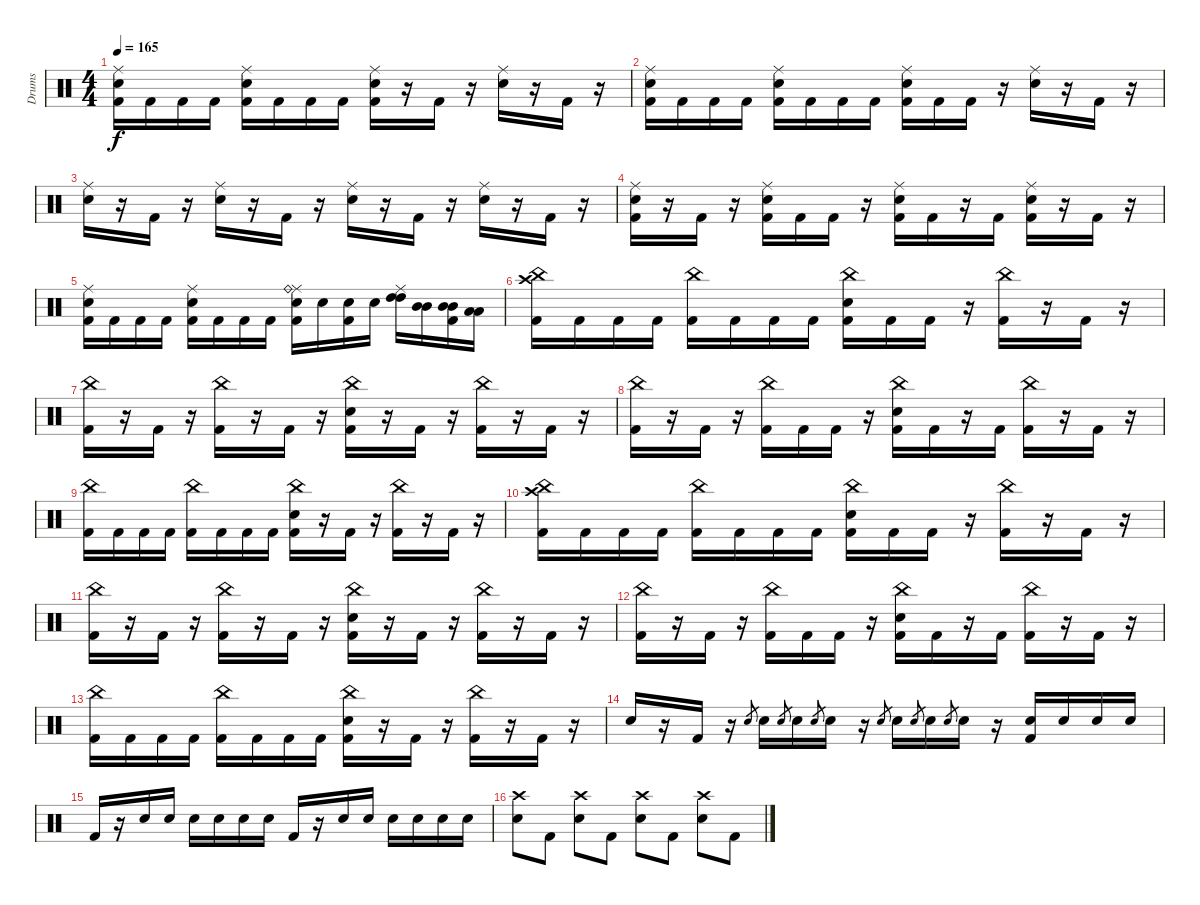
\track ("Drums" "Drums") {instrument percussion}
\staff {score}
\articulation defaults
\ts (4 4)
\tempo 165
\clef neutral
\ks c
("Ride (middle)" "Electric Snare (hit)" "Kick (hit) 2").16{dy f} "Kick (hit) 2".16 "Kick (hit) 2".16 "Kick (hit) 2".16 ("Ride (middle)" "Electric Snare (hit)" "Kick (hit) 2").16 "Kick (hit) 2".16 "Kick (hit) 2".16 "Kick (hit) 2".16 ("Ride (middle)" "Electric Snare (hit)" "Kick (hit) 2").16 r.16 "Kick (hit) 2".16 r.16 ("Ride (middle)" "Electric Snare (hit)").16 r.16 "Kick (hit) 2".16 r.16 |
("Ride (middle)" "Electric Snare (hit)" "Kick (hit) 2").16 "Kick (hit) 2".16 "Kick (hit) 2".16 "Kick (hit) 2".16 ("Ride (middle)" "Electric Snare (hit)" "Kick (hit) 2").16 "Kick (hit) 2".16 "Kick (hit) 2".16 "Kick (hit) 2".16 ("Ride (middle)" "Electric Snare (hit)" "Kick (hit) 2").16 "Kick (hit) 2".16 "Kick (hit) 2".16 r.16 ("Ride (middle)" "Electric Snare (hit)").16 r.16 "Kick (hit) 2".16 r.16 |
("Ride (middle)" "Electric Snare (hit)").16 r.16 "Kick (hit) 2".16 r.16 ("Ride (middle)" "Electric Snare (hit)").16 r.16 "Kick (hit) 2".16 r.16 ("Ride (middle)" "Electric Snare (hit)").16 r.16 "Kick (hit) 2".16 r.16 ("Ride (middle)" "Electric Snare (hit)").16 r.16 "Kick (hit) 2".16 r.16 |
("Ride (middle)" "Electric Snare (hit)" "Kick (hit) 2").16 r.16 "Kick (hit) 2".16 r.16 ("Ride (middle)" "Electric Snare (hit)" "Kick (hit) 2").16 "Kick (hit) 2".16 "Kick (hit) 2".16 r.16 ("Ride (middle)" "Electric Snare (hit)" "Kick (hit) 2").16 "Kick (hit) 2".16 r.16 "Kick (hit) 2".16 ("Ride (middle)" "Electric Snare (hit)" "Kick (hit) 2").16 r.16 "Kick (hit) 2".16 r.16 |
("Ride (middle)" "Electric Snare (hit)" "Kick (hit) 2").16 "Kick (hit) 2".16 "Kick (hit) 2".16 "Kick (hit) 2".16 ("Ride (middle)" "Electric Snare (hit)" "Kick (hit) 2").16 "Kick (hit) 2".16 "Kick (hit) 2".16 "Kick (hit) 2".16 ("Ride (middle)" "Ride (bell)" "Electric Snare (hit)" "Kick (hit) 2").16 "Electric Snare (hit)".16 ("Electric Snare (hit)" "Kick (hit) 2").16 "Electric Snare (hit)".16 ("Ride (middle)" "High Tom (hit)" "High Tom (hit)").16 ("Mid Tom (hit)" "Mid Tom (hit)").16 ("Mid Tom (hit)" "Mid Tom (hit)" "Kick (hit) 2").16 ("Low Tom (hit)" "Low Tom (hit)").16 |
("China (hit)" "Crash high (hit)" "Kick (hit) 2").16 "Kick (hit) 2".16 "Kick (hit) 2".16 "Kick (hit) 2".16 ("China (hit)" "Kick (hit) 2").16 "Kick (hit) 2".16 "Kick (hit) 2".16 "Kick (hit) 2".16 ("China (hit)" "Electric Snare (hit)" "Kick (hit) 2").16 "Kick (hit) 2".16 "Kick (hit) 2".16 r.16 ("China (hit)" "Kick (hit) 2").16 r.16 "Kick (hit) 2".16 r.16 |
("China (hit)" "Kick (hit) 2").16 r.16 "Kick (hit) 2".16 r.16 ("China (hit)" "Kick (hit) 2").16 r.16 "Kick (hit) 2".16 r.16 ("China (hit)" "Electric Snare (hit)" "Kick (hit) 2").16 r.16 "Kick (hit) 2".16 r.16 ("China (hit)" "Kick (hit) 2").16 r.16 "Kick (hit) 2".16 r.16 |
("China (hit)" "Kick (hit) 2").16 r.16 "Kick (hit) 2".16 r.16 ("China (hit)" "Kick (hit) 2").16 "Kick (hit) 2".16 "Kick (hit) 2".16 r.16 ("China (hit)" "Electric Snare (hit)" "Kick (hit) 2").16 "Kick (hit) 2".16 r.16 "Kick (hit) 2".16 ("China (hit)" "Kick (hit) 2").16 r.16 "Kick (hit) 2".16 r.16 |
("China (hit)" "Kick (hit) 2").16 "Kick (hit) 2".16 "Kick (hit) 2".16 "Kick (hit) 2".16 ("China (hit)" "Kick (hit) 2").16 "Kick (hit) 2".16 "Kick (hit) 2".16 "Kick (hit) 2".16 ("China (hit)" "Electric Snare (hit)" "Kick (hit) 2").16 r.16 "Kick (hit) 2".16 r.16 ("China (hit)" "Kick (hit) 2").16 r.16 "Kick (hit) 2".16 r.16 |
("China (hit)" "Crash high (hit)" "Kick (hit) 2").16 "Kick (hit) 2".16 "Kick (hit) 2".16 "Kick (hit) 2".16 ("China (hit)" "Kick (hit) 2").16 "Kick (hit) 2".16 "Kick (hit) 2".16 "Kick (hit) 2".16 ("China (hit)" "Electric Snare (hit)" "Kick (hit) 2").16 "Kick (hit) 2".16 "Kick (hit) 2".16 r.16 ("China (hit)" "Kick (hit) 2").16 r.16 "Kick (hit) 2".16 r.16 |
("China (hit)" "Kick (hit) 2").16 r.16 "Kick (hit) 2".16 r.16 ("China (hit)" "Kick (hit) 2").16 r.16 "Kick (hit) 2".16 r.16 ("China (hit)" "Electric Snare (hit)" "Kick (hit) 2").16 r.16 "Kick (hit) 2".16 r.16 ("China (hit)" "Kick (hit) 2").16 r.16 "Kick (hit) 2".16 r.16 |
("China (hit)" "Kick (hit) 2").16 r.16 "Kick (hit) 2".16 r.16 ("China (hit)" "Kick (hit) 2").16 "Kick (hit) 2".16 "Kick (hit) 2".16 r.16 ("China (hit)" "Electric Snare (hit)" "Kick (hit) 2").16 "Kick (hit) 2".16 r.16 "Kick (hit) 2".16 ("China (hit)" "Kick (hit) 2").16 r.16 "Kick (hit) 2".16 r.16 |
("China (hit)" "Kick (hit) 2").16 "Kick (hit) 2".16 "Kick (hit) 2".16 "Kick (hit) 2".16 ("China (hit)" "Kick (hit) 2").16 "Kick (hit) 2".16 "Kick (hit) 2".16 "Kick (hit) 2".16 ("China (hit)" "Electric Snare (hit)" "Kick (hit) 2").16 r.16 "Kick (hit) 2".16 r.16 ("China (hit)" "Kick (hit) 2").16 r.16 "Kick (hit) 2".16 r.16 |
"Electric Snare (hit)".16 r.16 "Kick (hit) 2".16 r.16 "Electric Snare (hit)".8{gr} "Electric Snare (hit)".16 "Electric Snare (hit)".8{gr} "Electric Snare (hit)".16 "Electric Snare (hit)".8{gr} "Electric Snare (hit)".16 r.16 "Electric Snare (hit)".8{gr} "Electric Snare (hit)".16 "Electric Snare (hit)".8{gr} "Electric Snare (hit)".16 "Electric Snare (hit)".8{gr} "Electric Snare (hit)".16 r.16 ("Electric Snare (hit)" "Kick (hit) 2").16 "Electric Snare (hit)".16 "Electric Snare (hit)".16 "Electric Snare (hit)".16 |
"Kick (hit) 2".16 r.16 "Electric Snare (hit)".16 "Electric Snare (hit)".16 "Electric Snare (hit)".16 "Electric Snare (hit)".16 "Electric Snare (hit)".16 "Electric Snare (hit)".16 "Kick (hit) 2".16 r.16 "Electric Snare (hit)".16 "Electric Snare (hit)".16 "Electric Snare (hit)".16 "Electric Snare (hit)".16 "Electric Snare (hit)".16 "Electric Snare (hit)".16 |
("Crash high (hit)" "Electric Snare (hit)").8 "Kick (hit) 2".8 ("Crash high (hit)" "Electric Snare (hit)").8 "Kick (hit) 2".8 ("Crash high (hit)" "Electric Snare (hit)").8 "Kick (hit) 2".8 ("Crash high (hit)" "Electric Snare (hit)").8 "Kick (hit) 2".8
